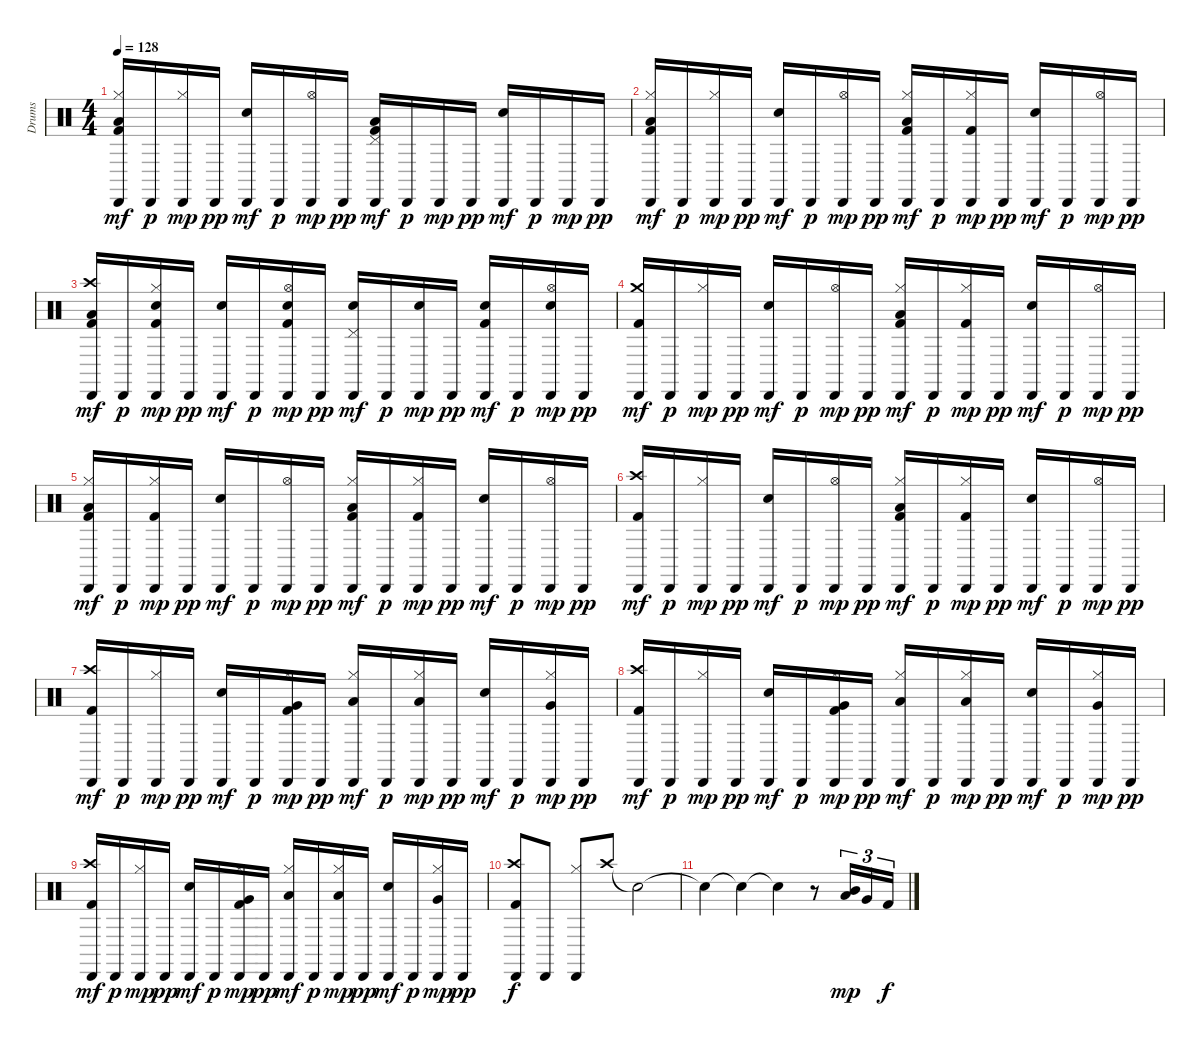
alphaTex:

\track ("Drums" "Drums") {instrument percussion}
\staff {score}
\articulation defaults
\ts (4 4)
\tempo 128
\clef neutral
\ks c
("Kick (hit) 2" "Hi-Hat (closed)" "Low Tom (hit)" "Cabasa (hit)").16{dy mf} "Cabasa (hit)".16{dy p} ("Hi-Hat (closed)" "Cabasa (hit)").16{dy mp} "Cabasa (hit)".16{dy pp} ("Electric Snare (hit)" "Cabasa (hit)").16{dy mf} "Cabasa (hit)".16{dy p} ("Hi-Hat (open)" "Cabasa (hit)").16{dy mp} "Cabasa (hit)".16{dy pp} ("Kick (hit) 2" "Pedal Hi-Hat (hit)" "Low Tom (hit)" "Cabasa (hit)").16{dy mf} "Cabasa (hit)".16{dy p} "Cabasa (hit)".16{dy mp} "Cabasa (hit)".16{dy pp} ("Electric Snare (hit)" "Cabasa (hit)").16{dy mf} "Cabasa (hit)".16{dy p} "Cabasa (hit)".16{dy mp} "Cabasa (hit)".16{dy pp} |
("Kick (hit) 2" "Hi-Hat (closed)" "Low Tom (hit)" "Cabasa (hit)").16{dy mf} "Cabasa (hit)".16{dy p} ("Hi-Hat (closed)" "Cabasa (hit)").16{dy mp} "Cabasa (hit)".16{dy pp} ("Electric Snare (hit)" "Cabasa (hit)").16{dy mf} "Cabasa (hit)".16{dy p} ("Hi-Hat (open)" "Cabasa (hit)").16{dy mp} "Cabasa (hit)".16{dy pp} ("Kick (hit) 2" "Hi-Hat (closed)" "Low Tom (hit)" "Cabasa (hit)").16{dy mf} "Cabasa (hit)".16{dy p} ("Kick (hit) 2" "Hi-Hat (closed)" "Cabasa (hit)").16{dy mp} "Cabasa (hit)".16{dy pp} ("Electric Snare (hit)" "Cabasa (hit)").16{dy mf} "Cabasa (hit)".16{dy p} ("Hi-Hat (open)" "Cabasa (hit)").16{dy mp} "Cabasa (hit)".16{dy pp} |
("Kick (hit) 2" "Low Tom (hit)" "Crash high (hit)" "Cabasa (hit)").16{dy mf} "Cabasa (hit)".16{dy p} ("Kick (hit) 2" "Electric Snare (hit)" "Hi-Hat (closed)" "Cabasa (hit)").16{dy mp} "Cabasa (hit)".16{dy pp} ("Electric Snare (hit)" "Cabasa (hit)").16{dy mf} "Cabasa (hit)".16{dy p} ("Kick (hit) 2" "Electric Snare (hit)" "Hi-Hat (open)" "Cabasa (hit)").16{dy mp} "Cabasa (hit)".16{dy pp} ("Electric Snare (hit)" "Pedal Hi-Hat (hit)" "Cabasa (hit)").16{dy mf} "Cabasa (hit)".16{dy p} ("Electric Snare (hit)" "Cabasa (hit)").16{dy mp} "Cabasa (hit)".16{dy pp} ("Kick (hit) 2" "Electric Snare (hit)" "Cabasa (hit)").16{dy mf} "Cabasa (hit)".16{dy p} ("Electric Snare (hit)" "Hi-Hat (open)" "Cabasa (hit)").16{dy mp} "Cabasa (hit)".16{dy pp} |
("Kick (hit) 2" "Crash medium (hit)" "Cabasa (hit)").16{dy mf} "Cabasa (hit)".16{dy p} ("Hi-Hat (closed)" "Cabasa (hit)").16{dy mp} "Cabasa (hit)".16{dy pp} ("Electric Snare (hit)" "Cabasa (hit)").16{dy mf} "Cabasa (hit)".16{dy p} ("Hi-Hat (open)" "Cabasa (hit)").16{dy mp} "Cabasa (hit)".16{dy pp} ("Kick (hit) 2" "Hi-Hat (closed)" "Low Tom (hit)" "Cabasa (hit)").16{dy mf} "Cabasa (hit)".16{dy p} ("Kick (hit) 2" "Hi-Hat (closed)" "Cabasa (hit)").16{dy mp} "Cabasa (hit)".16{dy pp} ("Electric Snare (hit)" "Cabasa (hit)").16{dy mf} "Cabasa (hit)".16{dy p} ("Hi-Hat (open)" "Cabasa (hit)").16{dy mp} "Cabasa (hit)".16{dy pp} |
("Kick (hit) 2" "Hi-Hat (closed)" "Low Tom (hit)" "Cabasa (hit)").16{dy mf} "Cabasa (hit)".16{dy p} ("Kick (hit) 2" "Hi-Hat (closed)" "Cabasa (hit)").16{dy mp} "Cabasa (hit)".16{dy pp} ("Electric Snare (hit)" "Cabasa (hit)").16{dy mf} "Cabasa (hit)".16{dy p} ("Hi-Hat (open)" "Cabasa (hit)").16{dy mp} "Cabasa (hit)".16{dy pp} ("Kick (hit) 2" "Hi-Hat (closed)" "Low Tom (hit)" "Cabasa (hit)").16{dy mf} "Cabasa (hit)".16{dy p} ("Kick (hit) 2" "Hi-Hat (closed)" "Cabasa (hit)").16{dy mp} "Cabasa (hit)".16{dy pp} ("Electric Snare (hit)" "Cabasa (hit)").16{dy mf} "Cabasa (hit)".16{dy p} ("Hi-Hat (open)" "Cabasa (hit)").16{dy mp} "Cabasa (hit)".16{dy pp} |
("Kick (hit) 2" "Crash high (hit)" "Cabasa (hit)").16{dy mf} "Cabasa (hit)".16{dy p} ("Hi-Hat (closed)" "Cabasa (hit)").16{dy mp} "Cabasa (hit)".16{dy pp} ("Electric Snare (hit)" "Cabasa (hit)").16{dy mf} "Cabasa (hit)".16{dy p} ("Hi-Hat (open)" "Cabasa (hit)").16{dy mp} "Cabasa (hit)".16{dy pp} ("Kick (hit) 2" "Hi-Hat (closed)" "Low Tom (hit)" "Cabasa (hit)").16{dy mf} "Cabasa (hit)".16{dy p} ("Kick (hit) 2" "Hi-Hat (closed)" "Cabasa (hit)").16{dy mp} "Cabasa (hit)".16{dy pp} ("Electric Snare (hit)" "Cabasa (hit)").16{dy mf} "Cabasa (hit)".16{dy p} ("Hi-Hat (open)" "Cabasa (hit)").16{dy mp} "Cabasa (hit)".16{dy pp} |
("Kick (hit) 2" "Crash high (hit)" "Cabasa (hit)").16{dy mf} "Cabasa (hit)".16{dy p} ("Hi-Hat (closed)" "Cabasa (hit)").16{dy mp} "Cabasa (hit)".16{dy pp} ("Electric Snare (hit)" "Cabasa (hit)").16{dy mf} "Cabasa (hit)".16{dy p} ("Kick (hit) 2" "Hi-Hat (closed)" "Very Low Tom (hit)" "Cabasa (hit)").16{dy mp} "Cabasa (hit)".16{dy pp} ("Hi-Hat (closed)" "Low Tom (hit)" "Cabasa (hit)").16{dy mf} "Cabasa (hit)".16{dy p} ("Hi-Hat (closed)" "Low Tom (hit)" "Cabasa (hit)").16{dy mp} "Cabasa (hit)".16{dy pp} ("Electric Snare (hit)" "Cabasa (hit)").16{dy mf} "Cabasa (hit)".16{dy p} ("Hi-Hat (closed)" "Very Low Tom (hit)" "Cabasa (hit)").16{dy mp} "Cabasa (hit)".16{dy pp} |
("Kick (hit) 2" "Crash high (hit)" "Cabasa (hit)").16{dy mf} "Cabasa (hit)".16{dy p} ("Hi-Hat (closed)" "Cabasa (hit)").16{dy mp} "Cabasa (hit)".16{dy pp} ("Electric Snare (hit)" "Cabasa (hit)").16{dy mf} "Cabasa (hit)".16{dy p} ("Kick (hit) 2" "Hi-Hat (closed)" "Very Low Tom (hit)" "Cabasa (hit)").16{dy mp} "Cabasa (hit)".16{dy pp} ("Hi-Hat (closed)" "Low Tom (hit)" "Cabasa (hit)").16{dy mf} "Cabasa (hit)".16{dy p} ("Hi-Hat (closed)" "Low Tom (hit)" "Cabasa (hit)").16{dy mp} "Cabasa (hit)".16{dy pp} ("Electric Snare (hit)" "Cabasa (hit)").16{dy mf} "Cabasa (hit)".16{dy p} ("Hi-Hat (closed)" "Very Low Tom (hit)" "Cabasa (hit)").16{dy mp} "Cabasa (hit)".16{dy pp} |
("Kick (hit) 2" "Crash high (hit)" "Cabasa (hit)").16{dy mf} "Cabasa (hit)".16{dy p} ("Hi-Hat (closed)" "Cabasa (hit)").16{dy mp} "Cabasa (hit)".16{dy pp} ("Electric Snare (hit)" "Cabasa (hit)").16{dy mf} "Cabasa (hit)".16{dy p} ("Kick (hit) 2" "Hi-Hat (closed)" "Very Low Tom (hit)" "Cabasa (hit)").16{dy mp} "Cabasa (hit)".16{dy pp} ("Hi-Hat (closed)" "Low Tom (hit)" "Cabasa (hit)").16{dy mf} "Cabasa (hit)".16{dy p} ("Hi-Hat (closed)" "Low Tom (hit)" "Cabasa (hit)").16{dy mp} "Cabasa (hit)".16{dy pp} ("Electric Snare (hit)" "Cabasa (hit)").16{dy mf} "Cabasa (hit)".16{dy p} ("Hi-Hat (closed)" "Very Low Tom (hit)" "Cabasa (hit)").16{dy mp} "Cabasa (hit)".16{dy pp} |
("Kick (hit) 2" "Crash high (hit)" "Cabasa (hit)").8{dy f} "Cabasa (hit)".8 ("Hi-Hat (closed)" "Cabasa (hit)").8 "Crash high (hit)".8 "Snare (hit)"{t}.2 |
"Snare (hit)"{t}.4 "Snare (hit)"{t}.4 "Snare (hit)"{t}.4 r.8 ("Mid Tom (hit)" "Low Tom (hit)").16{tu (3 2) dy mp} "Very Low Tom (hit)".16{tu (3 2)} "Kick (hit) 2".16{tu (3 2) dy f}
